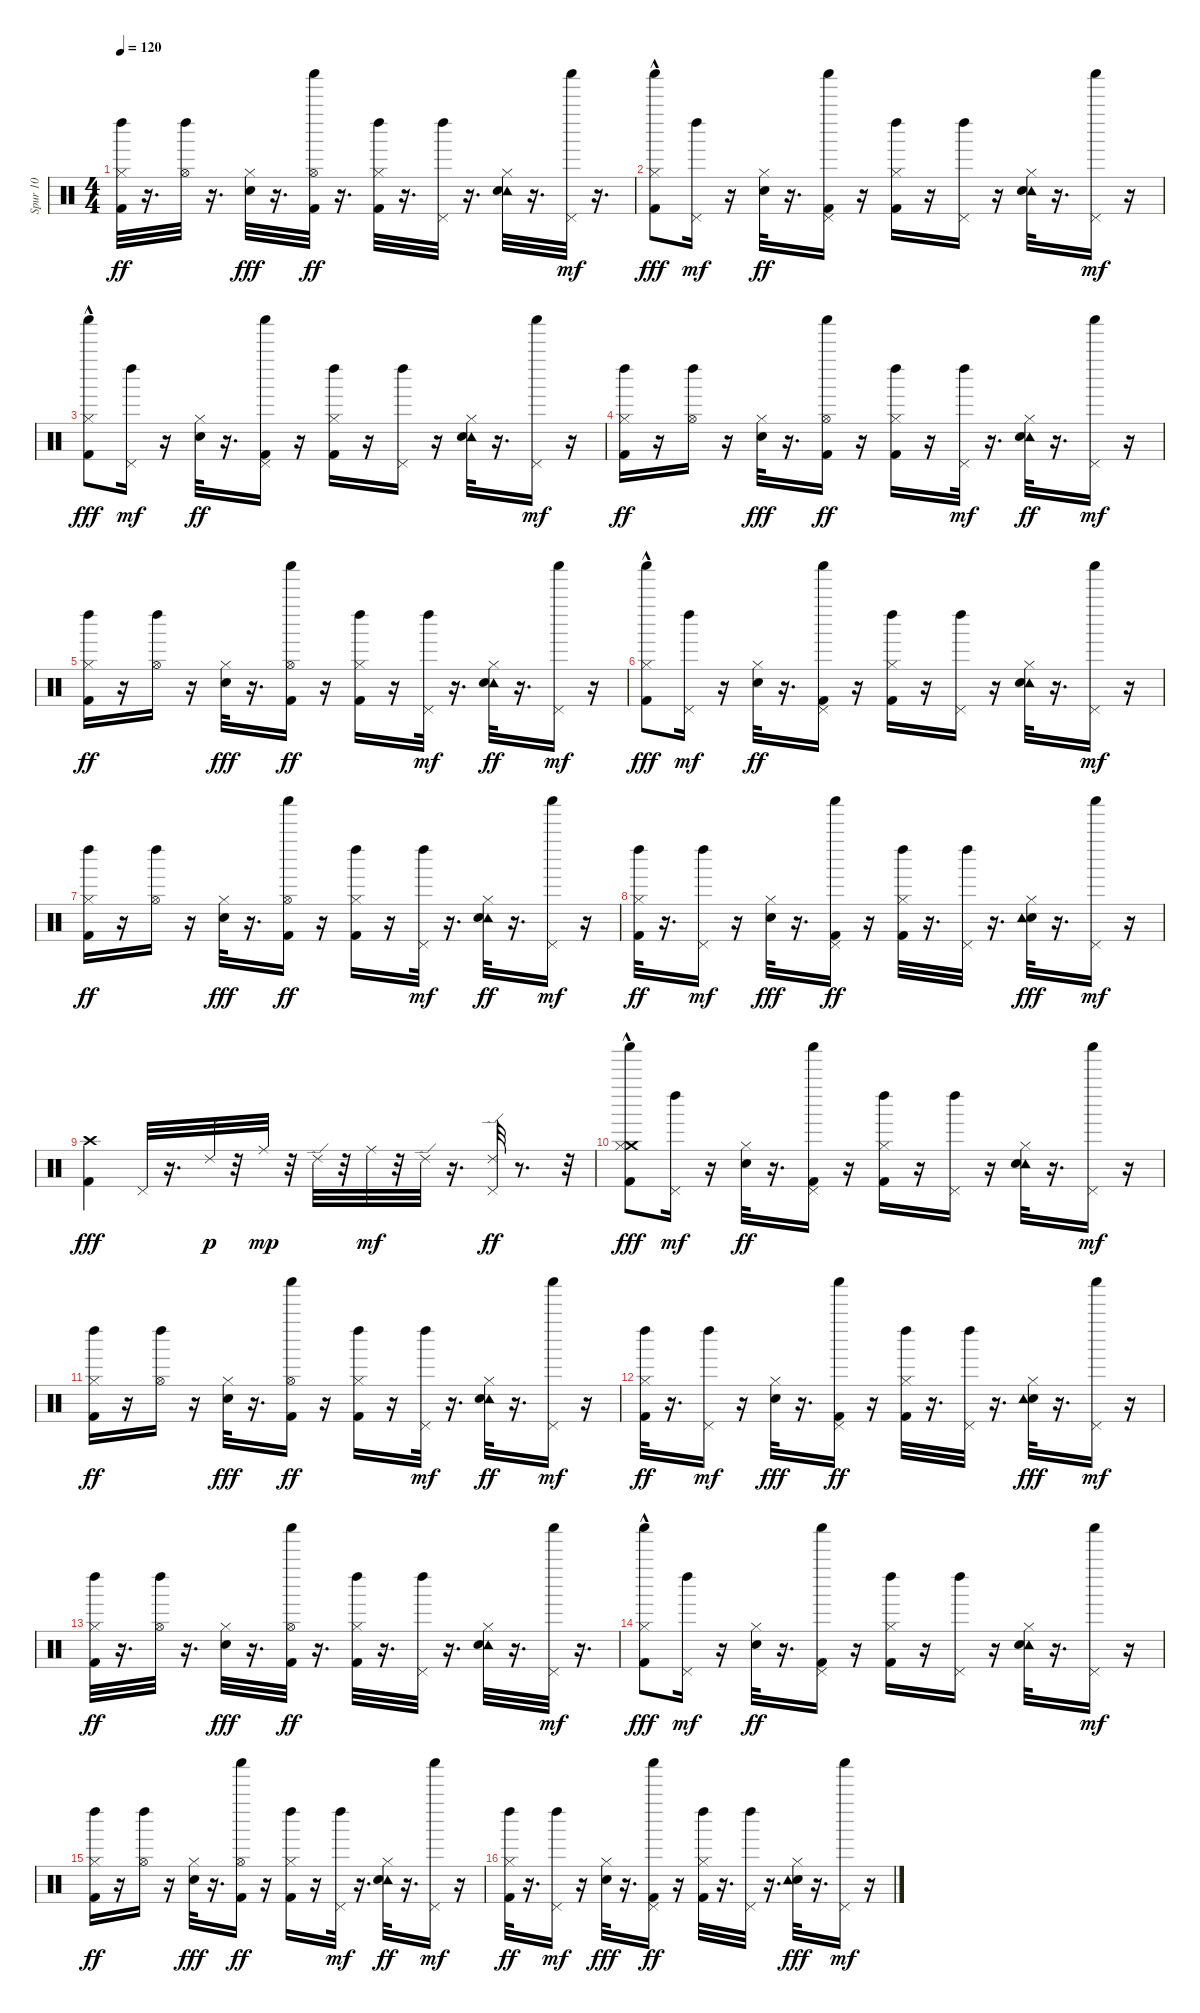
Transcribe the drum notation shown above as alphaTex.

\track ("Spur 10" "Spur 10") {instrument percussion}
\staff {score}
\articulation defaults
\ts (4 4)
\tempo 120
\clef neutral
\ks c
("Kick (hit) 2" "Hi-Hat (closed)" "Left Maraca (hit)").32{dy ff} r.16{d} ("Left Maraca (hit)" "Hi-Hat (open)").32 r.16{d} ("Electric Snare (hit)" "Hi-Hat (closed)").32{dy fff} r.16{d} ("Hi-Hat (open)" "Kick (hit) 2" "Shaker (hit)").32{dy ff} r.16{d} ("Left Maraca (hit)" "Hi-Hat (closed)" "Kick (hit) 2").32 r.16{d} ("Left Maraca (hit)" "Pedal Hi-Hat (hit)").32 r.16{d} ("Tambourine (hit)" "Electric Snare (hit)" "Hi-Hat (closed)").32 r.16{d} ("Pedal Hi-Hat (hit)" "Shaker (hit)").32{dy mf} r.16{d} |
("Shaker (hit)"{hac} "Kick (hit) 2" "Hi-Hat (closed)").8{dy fff} ("Left Maraca (hit)" "Pedal Hi-Hat (hit)").16{dy mf} r.16 ("Electric Snare (hit)" "Hi-Hat (closed)").32{dy ff} r.16{d} ("Shaker (hit)" "Kick (hit) 2" "Pedal Hi-Hat (hit)").16 r.16 ("Left Maraca (hit)" "Hi-Hat (closed)" "Kick (hit) 2").16 r.16 ("Left Maraca (hit)" "Pedal Hi-Hat (hit)").16 r.16 ("Tambourine (hit)" "Electric Snare (hit)" "Hi-Hat (closed)").32 r.16{d} ("Pedal Hi-Hat (hit)" "Shaker (hit)").16{dy mf} r.16 |
("Shaker (hit)"{hac} "Kick (hit) 2" "Hi-Hat (closed)").8{dy fff} ("Left Maraca (hit)" "Pedal Hi-Hat (hit)").16{dy mf} r.16 ("Electric Snare (hit)" "Hi-Hat (closed)").32{dy ff} r.16{d} ("Shaker (hit)" "Kick (hit) 2" "Pedal Hi-Hat (hit)").16 r.16 ("Left Maraca (hit)" "Hi-Hat (closed)" "Kick (hit) 2").16 r.16 ("Left Maraca (hit)" "Pedal Hi-Hat (hit)").16 r.16 ("Tambourine (hit)" "Electric Snare (hit)" "Hi-Hat (closed)").32 r.16{d} ("Pedal Hi-Hat (hit)" "Shaker (hit)").16{dy mf} r.16 |
("Kick (hit) 2" "Hi-Hat (closed)" "Left Maraca (hit)").16{dy ff} r.16 ("Left Maraca (hit)" "Hi-Hat (open)").16 r.16 ("Hi-Hat (closed)" "Electric Snare (hit)").32{dy fff} r.16{d} ("Shaker (hit)" "Hi-Hat (open)" "Kick (hit) 2").16{dy ff} r.16 ("Left Maraca (hit)" "Hi-Hat (closed)" "Kick (hit) 2").16 r.16 ("Left Maraca (hit)" "Pedal Hi-Hat (hit)").32{dy mf} r.16{d} ("Tambourine (hit)" "Electric Snare (hit)" "Hi-Hat (closed)").32{dy ff} r.16{d} ("Shaker (hit)" "Pedal Hi-Hat (hit)").16{dy mf} r.16 |
("Kick (hit) 2" "Hi-Hat (closed)" "Left Maraca (hit)").16{dy ff} r.16 ("Left Maraca (hit)" "Hi-Hat (open)").16 r.16 ("Hi-Hat (closed)" "Electric Snare (hit)").32{dy fff} r.16{d} ("Shaker (hit)" "Hi-Hat (open)" "Kick (hit) 2").16{dy ff} r.16 ("Left Maraca (hit)" "Hi-Hat (closed)" "Kick (hit) 2").16 r.16 ("Left Maraca (hit)" "Pedal Hi-Hat (hit)").32{dy mf} r.16{d} ("Tambourine (hit)" "Electric Snare (hit)" "Hi-Hat (closed)").32{dy ff} r.16{d} ("Shaker (hit)" "Pedal Hi-Hat (hit)").16{dy mf} r.16 |
("Shaker (hit)"{hac} "Kick (hit) 2" "Hi-Hat (closed)").8{dy fff} ("Left Maraca (hit)" "Pedal Hi-Hat (hit)").16{dy mf} r.16 ("Electric Snare (hit)" "Hi-Hat (closed)").32{dy ff} r.16{d} ("Shaker (hit)" "Kick (hit) 2" "Pedal Hi-Hat (hit)").16 r.16 ("Left Maraca (hit)" "Hi-Hat (closed)" "Kick (hit) 2").16 r.16 ("Left Maraca (hit)" "Pedal Hi-Hat (hit)").16 r.16 ("Tambourine (hit)" "Electric Snare (hit)" "Hi-Hat (closed)").32 r.16{d} ("Pedal Hi-Hat (hit)" "Shaker (hit)").16{dy mf} r.16 |
("Kick (hit) 2" "Hi-Hat (closed)" "Left Maraca (hit)").16{dy ff} r.16 ("Left Maraca (hit)" "Hi-Hat (open)").16 r.16 ("Hi-Hat (closed)" "Electric Snare (hit)").32{dy fff} r.16{d} ("Shaker (hit)" "Hi-Hat (open)" "Kick (hit) 2").16{dy ff} r.16 ("Left Maraca (hit)" "Hi-Hat (closed)" "Kick (hit) 2").16 r.16 ("Left Maraca (hit)" "Pedal Hi-Hat (hit)").32{dy mf} r.16{d} ("Tambourine (hit)" "Electric Snare (hit)" "Hi-Hat (closed)").32{dy ff} r.16{d} ("Shaker (hit)" "Pedal Hi-Hat (hit)").16{dy mf} r.16 |
("Kick (hit) 2" "Hi-Hat (closed)" "Left Maraca (hit)").32{dy ff} r.16{d} ("Left Maraca (hit)" "Pedal Hi-Hat (hit)").16{dy mf} r.16 ("Hi-Hat (closed)" "Electric Snare (hit)").32{dy fff} r.16{d} ("Shaker (hit)" "Kick (hit) 2" "Pedal Hi-Hat (hit)").16{dy ff} r.16 ("Left Maraca (hit)" "Hi-Hat (closed)" "Kick (hit) 2").32 r.16{d} ("Pedal Hi-Hat (hit)" "Left Maraca (hit)").32 r.16{d} ("Hi-Hat (closed)" "Electric Snare (hit)" "Tambourine (hit)").32{dy fff} r.16{d} ("Shaker (hit)" "Pedal Hi-Hat (hit)").16{dy mf} r.16 |
("Kick (hit) 2" "Crash high (hit)").4{dy fff} "Pedal Hi-Hat (hit)".32 r.16{d} "Ride (edge) 2".32{dy p} r.32 "Ride (middle)".32{dy mp} r.32 "Ride (edge) 2".32 r.32 "Ride (middle)".32{dy mf} r.32 "Ride (edge) 2".32 r.16{d} ("Pedal Hi-Hat (hit)" "Ride (edge) 2").32{dy ff} r.8{d} r.32 |
("Crash medium (hit)" "Shaker (hit)"{hac} "Kick (hit) 2" "Hi-Hat (closed)").8{dy fff} ("Left Maraca (hit)" "Pedal Hi-Hat (hit)").16{dy mf} r.16 ("Electric Snare (hit)" "Hi-Hat (closed)").32{dy ff} r.16{d} ("Shaker (hit)" "Kick (hit) 2" "Pedal Hi-Hat (hit)").16 r.16 ("Left Maraca (hit)" "Hi-Hat (closed)" "Kick (hit) 2").16 r.16 ("Left Maraca (hit)" "Pedal Hi-Hat (hit)").16 r.16 ("Tambourine (hit)" "Electric Snare (hit)" "Hi-Hat (closed)").32 r.16{d} ("Pedal Hi-Hat (hit)" "Shaker (hit)").16{dy mf} r.16 |
("Kick (hit) 2" "Hi-Hat (closed)" "Left Maraca (hit)").16{dy ff} r.16 ("Left Maraca (hit)" "Hi-Hat (open)").16 r.16 ("Hi-Hat (closed)" "Electric Snare (hit)").32{dy fff} r.16{d} ("Shaker (hit)" "Hi-Hat (open)" "Kick (hit) 2").16{dy ff} r.16 ("Left Maraca (hit)" "Hi-Hat (closed)" "Kick (hit) 2").16 r.16 ("Left Maraca (hit)" "Pedal Hi-Hat (hit)").32{dy mf} r.16{d} ("Tambourine (hit)" "Electric Snare (hit)" "Hi-Hat (closed)").32{dy ff} r.16{d} ("Shaker (hit)" "Pedal Hi-Hat (hit)").16{dy mf} r.16 |
("Kick (hit) 2" "Hi-Hat (closed)" "Left Maraca (hit)").32{dy ff} r.16{d} ("Left Maraca (hit)" "Pedal Hi-Hat (hit)").16{dy mf} r.16 ("Hi-Hat (closed)" "Electric Snare (hit)").32{dy fff} r.16{d} ("Shaker (hit)" "Kick (hit) 2" "Pedal Hi-Hat (hit)").16{dy ff} r.16 ("Left Maraca (hit)" "Hi-Hat (closed)" "Kick (hit) 2").32 r.16{d} ("Pedal Hi-Hat (hit)" "Left Maraca (hit)").32 r.16{d} ("Hi-Hat (closed)" "Electric Snare (hit)" "Tambourine (hit)").32{dy fff} r.16{d} ("Shaker (hit)" "Pedal Hi-Hat (hit)").16{dy mf} r.16 |
("Kick (hit) 2" "Hi-Hat (closed)" "Left Maraca (hit)").32{dy ff} r.16{d} ("Left Maraca (hit)" "Hi-Hat (open)").32 r.16{d} ("Electric Snare (hit)" "Hi-Hat (closed)").32{dy fff} r.16{d} ("Hi-Hat (open)" "Kick (hit) 2" "Shaker (hit)").32{dy ff} r.16{d} ("Left Maraca (hit)" "Hi-Hat (closed)" "Kick (hit) 2").32 r.16{d} ("Left Maraca (hit)" "Pedal Hi-Hat (hit)").32 r.16{d} ("Tambourine (hit)" "Electric Snare (hit)" "Hi-Hat (closed)").32 r.16{d} ("Pedal Hi-Hat (hit)" "Shaker (hit)").32{dy mf} r.16{d} |
("Shaker (hit)"{hac} "Kick (hit) 2" "Hi-Hat (closed)").8{dy fff} ("Left Maraca (hit)" "Pedal Hi-Hat (hit)").16{dy mf} r.16 ("Electric Snare (hit)" "Hi-Hat (closed)").32{dy ff} r.16{d} ("Shaker (hit)" "Kick (hit) 2" "Pedal Hi-Hat (hit)").16 r.16 ("Left Maraca (hit)" "Hi-Hat (closed)" "Kick (hit) 2").16 r.16 ("Left Maraca (hit)" "Pedal Hi-Hat (hit)").16 r.16 ("Tambourine (hit)" "Electric Snare (hit)" "Hi-Hat (closed)").32 r.16{d} ("Pedal Hi-Hat (hit)" "Shaker (hit)").16{dy mf} r.16 |
("Kick (hit) 2" "Hi-Hat (closed)" "Left Maraca (hit)").16{dy ff} r.16 ("Left Maraca (hit)" "Hi-Hat (open)").16 r.16 ("Hi-Hat (closed)" "Electric Snare (hit)").32{dy fff} r.16{d} ("Shaker (hit)" "Hi-Hat (open)" "Kick (hit) 2").16{dy ff} r.16 ("Left Maraca (hit)" "Hi-Hat (closed)" "Kick (hit) 2").16 r.16 ("Left Maraca (hit)" "Pedal Hi-Hat (hit)").32{dy mf} r.16{d} ("Tambourine (hit)" "Electric Snare (hit)" "Hi-Hat (closed)").32{dy ff} r.16{d} ("Shaker (hit)" "Pedal Hi-Hat (hit)").16{dy mf} r.16 |
("Kick (hit) 2" "Hi-Hat (closed)" "Left Maraca (hit)").32{dy ff} r.16{d} ("Left Maraca (hit)" "Pedal Hi-Hat (hit)").16{dy mf} r.16 ("Hi-Hat (closed)" "Electric Snare (hit)").32{dy fff} r.16{d} ("Shaker (hit)" "Kick (hit) 2" "Pedal Hi-Hat (hit)").16{dy ff} r.16 ("Left Maraca (hit)" "Hi-Hat (closed)" "Kick (hit) 2").32 r.16{d} ("Pedal Hi-Hat (hit)" "Left Maraca (hit)").32 r.16{d} ("Hi-Hat (closed)" "Electric Snare (hit)" "Tambourine (hit)").32{dy fff} r.16{d} ("Shaker (hit)" "Pedal Hi-Hat (hit)").16{dy mf} r.16
